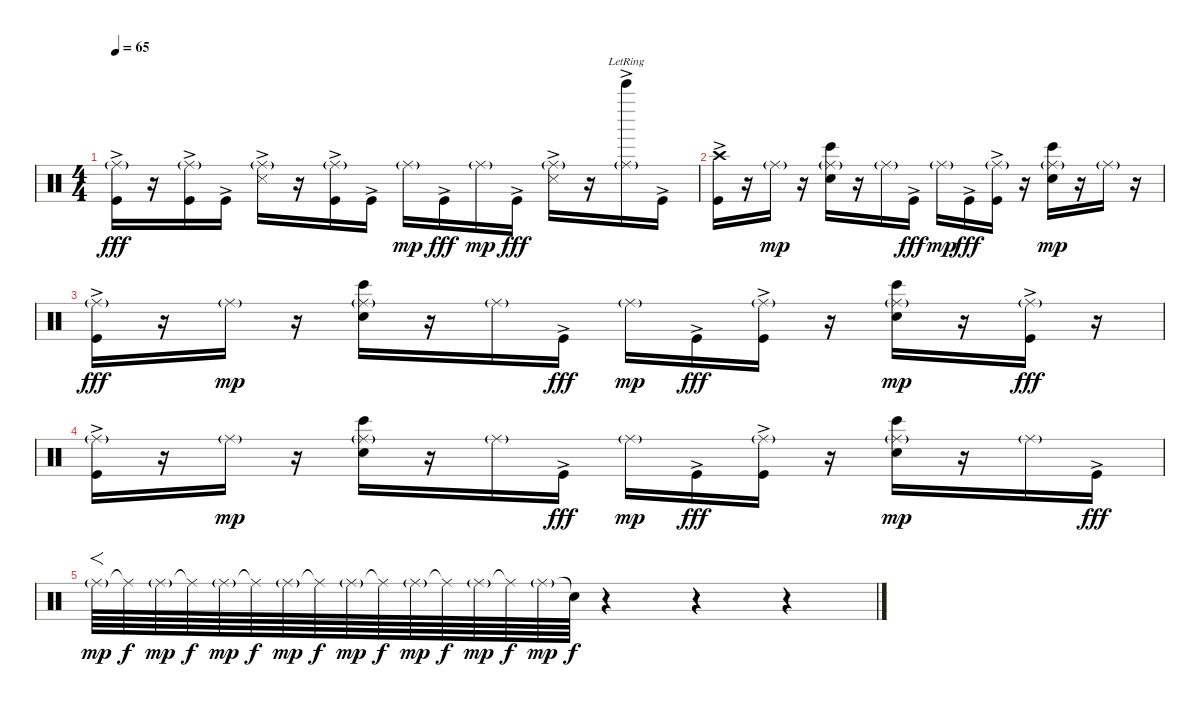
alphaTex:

\track "" {instrument percussion}
\staff {score}
\articulation defaults
\ts (4 4)
\tempo 65
\clef neutral
\ks c
("Ride (middle)"{g} "Kick (hit)"{ac}).16{dy fff} r.16 ("Ride (middle)"{g} "Kick (hit)"{ac}).16 "Kick (hit)"{ac}.16 ("Ride (middle)"{g} "Snare (side stick) 3"{ac}).16 r.16 ("Ride (middle)"{g} "Kick (hit)"{ac}).16 "Kick (hit)"{ac}.16 "Ride (middle)"{g}.16{dy mp} "Kick (hit)"{ac}.16{dy fff} "Ride (middle)"{g}.16{dy mp} "Kick (hit)"{ac}.16{dy fff} ("Ride (middle)"{g} "Snare (side stick) 3"{ac}).16 r.16 ("Ride (middle)"{g} "Bell Tree (hit)"{ac lr}).16 "Kick (hit)"{ac}.16 |
("Crash high (hit)" "Kick (hit)"{ac}).16 r.16 "Ride (middle)"{g}.16{dy mp} r.16 ("Ride (middle)"{g} "Electric Snare (hit)" "Bongo High (hit)").16 r.16 "Ride (middle)"{g}.16 "Kick (hit)"{ac}.16{dy fff} "Ride (middle)"{g}.16{dy mp} "Kick (hit)"{ac}.16{dy fff} ("Ride (middle)"{g} "Kick (hit)"{ac}).16 r.16 ("Ride (middle)"{g} "Electric Snare (hit)" "Bongo High (hit)").16{dy mp} r.16 "Ride (middle)"{g}.16 r.16 |
("Ride (middle)"{g} "Kick (hit)"{ac}).16{dy fff} r.16 "Ride (middle)"{g}.16{dy mp} r.16 ("Ride (middle)"{g} "Electric Snare (hit)" "Bongo High (hit)").16 r.16 "Ride (middle)"{g}.16 "Kick (hit)"{ac}.16{dy fff} "Ride (middle)"{g}.16{dy mp} "Kick (hit)"{ac}.16{dy fff} ("Ride (middle)"{g} "Kick (hit)"{ac}).16 r.16 ("Ride (middle)"{g} "Electric Snare (hit)" "Bongo High (hit)").16{dy mp} r.16 ("Ride (middle)"{g} "Kick (hit)"{ac}).16{dy fff} r.16 |
("Ride (middle)"{g} "Kick (hit)"{ac}).16 r.16 "Ride (middle)"{g}.16{dy mp} r.16 ("Ride (middle)"{g} "Electric Snare (hit)" "Bongo High (hit)").16 r.16 "Ride (middle)"{g}.16 "Kick (hit)"{ac}.16{dy fff} "Ride (middle)"{g}.16{dy mp} "Kick (hit)"{ac}.16{dy fff} ("Ride (middle)"{g} "Kick (hit)"{ac}).16 r.16 ("Ride (middle)"{g} "Electric Snare (hit)" "Bongo High (hit)").16{dy mp} r.16 "Ride (middle)"{g}.16 "Kick (hit)"{ac}.16{dy fff} |
"Ride (middle)"{g}.64{f dy mp} "Ride (middle)"{t}.64{dy f} "Ride (middle)"{g}.64{dy mp} "Ride (middle)"{t}.64{dy f} "Ride (middle)"{g}.64{dy mp} "Ride (middle)"{t}.64{dy f} "Ride (middle)"{g}.64{dy mp} "Ride (middle)"{t}.64{dy f} "Ride (middle)"{g}.64{dy mp} "Ride (middle)"{t}.64{dy f} "Ride (middle)"{g}.64{dy mp} "Ride (middle)"{t}.64{dy f} "Ride (middle)"{g}.64{dy mp} "Ride (middle)"{t}.64{dy f} "Ride (middle)"{g}.64{dy mp} "Snare (hit)"{t}.64{dy f} r.4 r.4 r.4
